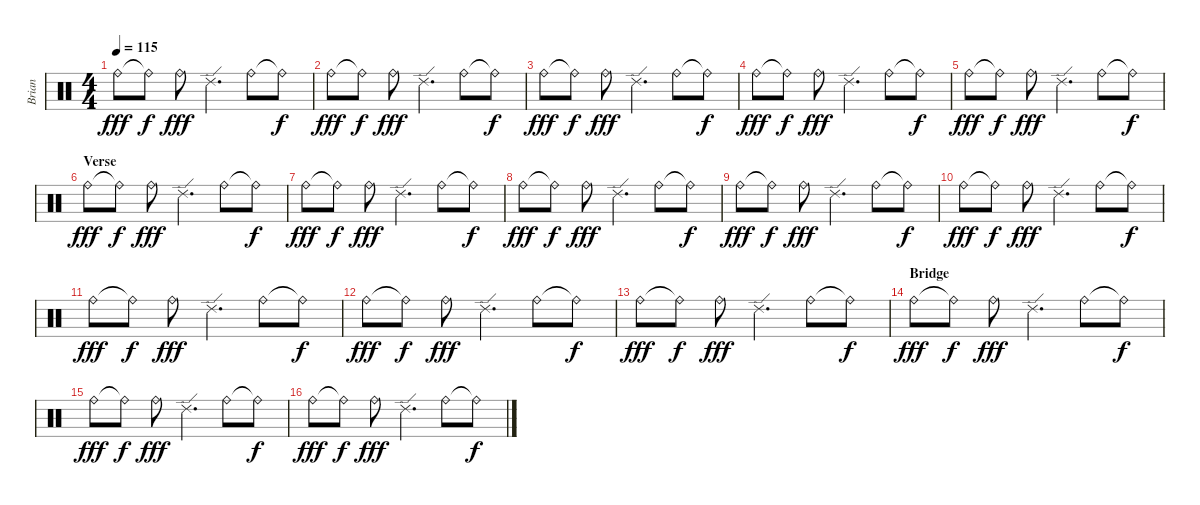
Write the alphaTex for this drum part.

\track ("Brian" "Brian") {instrument percussion}
\staff {score}
\articulation defaults
\ts (4 4)
\tempo 115
\clef neutral
\ks c "Ride (bell)".8{dy fff} "Ride (bell)"{t}.8{dy f} "Ride (bell)".8{dy fff} "Ride (edge) 2".4{d} "Ride (bell)".8 "Ride (bell)"{t}.8{dy f}
|
"Ride (bell)".8{dy fff} "Ride (bell)"{t}.8{dy f} "Ride (bell)".8{dy fff} "Ride (edge) 2".4{d} "Ride (bell)".8 "Ride (bell)"{t}.8{dy f} |
"Ride (bell)".8{dy fff} "Ride (bell)"{t}.8{dy f} "Ride (bell)".8{dy fff} "Ride (edge) 2".4{d} "Ride (bell)".8 "Ride (bell)"{t}.8{dy f} |
"Ride (bell)".8{dy fff} "Ride (bell)"{t}.8{dy f} "Ride (bell)".8{dy fff} "Ride (edge) 2".4{d} "Ride (bell)".8 "Ride (bell)"{t}.8{dy f} |
"Ride (bell)".8{dy fff} "Ride (bell)"{t}.8{dy f} "Ride (bell)".8{dy fff} "Ride (edge) 2".4{d} "Ride (bell)".8 "Ride (bell)"{t}.8{dy f} |
\section ("" "Verse")
"Ride (bell)".8{dy fff} "Ride (bell)"{t}.8{dy f} "Ride (bell)".8{dy fff} "Ride (edge) 2".4{d} "Ride (bell)".8 "Ride (bell)"{t}.8{dy f} |
"Ride (bell)".8{dy fff} "Ride (bell)"{t}.8{dy f} "Ride (bell)".8{dy fff} "Ride (edge) 2".4{d} "Ride (bell)".8 "Ride (bell)"{t}.8{dy f} |
"Ride (bell)".8{dy fff} "Ride (bell)"{t}.8{dy f} "Ride (bell)".8{dy fff} "Ride (edge) 2".4{d} "Ride (bell)".8 "Ride (bell)"{t}.8{dy f} |
"Ride (bell)".8{dy fff} "Ride (bell)"{t}.8{dy f} "Ride (bell)".8{dy fff} "Ride (edge) 2".4{d} "Ride (bell)".8 "Ride (bell)"{t}.8{dy f} |
"Ride (bell)".8{dy fff} "Ride (bell)"{t}.8{dy f} "Ride (bell)".8{dy fff} "Ride (edge) 2".4{d} "Ride (bell)".8 "Ride (bell)"{t}.8{dy f} |
"Ride (bell)".8{dy fff} "Ride (bell)"{t}.8{dy f} "Ride (bell)".8{dy fff} "Ride (edge) 2".4{d} "Ride (bell)".8 "Ride (bell)"{t}.8{dy f} |
"Ride (bell)".8{dy fff} "Ride (bell)"{t}.8{dy f} "Ride (bell)".8{dy fff} "Ride (edge) 2".4{d} "Ride (bell)".8 "Ride (bell)"{t}.8{dy f} |
"Ride (bell)".8{dy fff} "Ride (bell)"{t}.8{dy f} "Ride (bell)".8{dy fff} "Ride (edge) 2".4{d} "Ride (bell)".8 "Ride (bell)"{t}.8{dy f} |
\section ("" "Bridge")
"Ride (bell)".8{dy fff} "Ride (bell)"{t}.8{dy f} "Ride (bell)".8{dy fff} "Ride (edge) 2".4{d} "Ride (bell)".8 "Ride (bell)"{t}.8{dy f} |
"Ride (bell)".8{dy fff} "Ride (bell)"{t}.8{dy f} "Ride (bell)".8{dy fff} "Ride (edge) 2".4{d} "Ride (bell)".8 "Ride (bell)"{t}.8{dy f} |
"Ride (bell)".8{dy fff} "Ride (bell)"{t}.8{dy f} "Ride (bell)".8{dy fff} "Ride (edge) 2".4{d} "Ride (bell)".8 "Ride (bell)"{t}.8{dy f}
